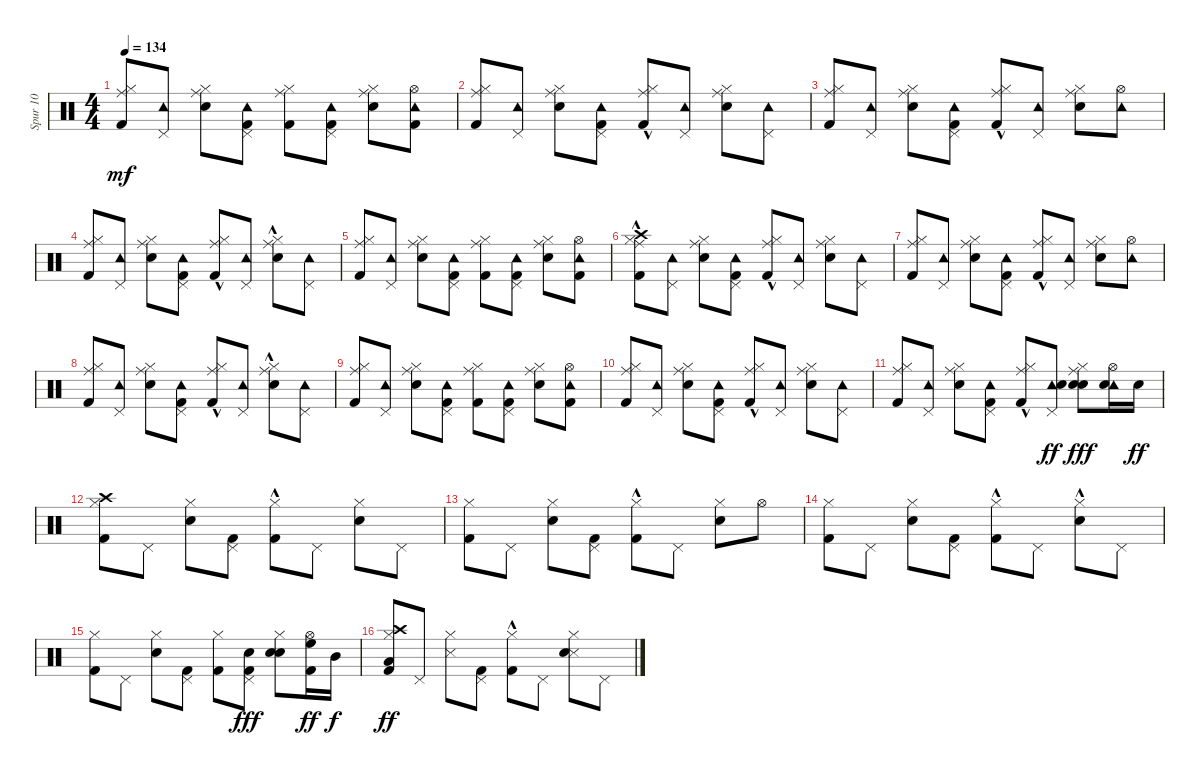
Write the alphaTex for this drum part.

\track ("Spur 10" "Spur 10") {instrument percussion}
\staff {score}
\articulation defaults
\ts (4 4)
\tempo 134
\clef neutral
\ks c
("Kick (hit) 2" "Hi-Hat (closed)" "Ride (middle)").8{dy mf} ("Pedal Hi-Hat (hit)" "Tambourine (hit)").8 ("Electric Snare (hit)" "Hi-Hat (closed)" "Ride (middle)").8 ("Kick (hit) 2" "Pedal Hi-Hat (hit)" "Tambourine (hit)").8 ("Kick (hit) 2" "Hi-Hat (closed)" "Ride (middle)").8 ("Kick (hit) 2" "Pedal Hi-Hat (hit)" "Tambourine (hit)").8 ("Electric Snare (hit)" "Hi-Hat (closed)" "Ride (middle)").8 ("Kick (hit) 2" "Hi-Hat (open)" "Tambourine (hit)").8 |
("Kick (hit) 2" "Hi-Hat (closed)" "Ride (middle)").8 ("Pedal Hi-Hat (hit)" "Tambourine (hit)").8 ("Electric Snare (hit)" "Hi-Hat (closed)" "Ride (middle)").8 ("Kick (hit) 2" "Pedal Hi-Hat (hit)" "Tambourine (hit)").8 ("Kick (hit) 2"{hac} "Hi-Hat (closed)" "Ride (middle)").8 ("Pedal Hi-Hat (hit)" "Tambourine (hit)").8 ("Electric Snare (hit)" "Hi-Hat (closed)" "Ride (middle)").8 ("Pedal Hi-Hat (hit)" "Tambourine (hit)").8 |
("Kick (hit) 2" "Hi-Hat (closed)" "Ride (middle)").8 ("Pedal Hi-Hat (hit)" "Tambourine (hit)").8 ("Electric Snare (hit)" "Hi-Hat (closed)" "Ride (middle)").8 ("Kick (hit) 2" "Pedal Hi-Hat (hit)" "Tambourine (hit)").8 ("Kick (hit) 2"{hac} "Hi-Hat (closed)" "Ride (middle)").8 ("Pedal Hi-Hat (hit)" "Tambourine (hit)").8 ("Electric Snare (hit)" "Hi-Hat (closed)" "Ride (middle)").8 ("Hi-Hat (open)" "Tambourine (hit)").8 |
("Kick (hit) 2" "Hi-Hat (closed)" "Ride (middle)").8 ("Pedal Hi-Hat (hit)" "Tambourine (hit)").8 ("Electric Snare (hit)" "Hi-Hat (closed)" "Ride (middle)").8 ("Kick (hit) 2" "Pedal Hi-Hat (hit)" "Tambourine (hit)").8 ("Kick (hit) 2"{hac} "Hi-Hat (closed)" "Ride (middle)").8 ("Pedal Hi-Hat (hit)" "Tambourine (hit)").8 ("Electric Snare (hit)" "Hi-Hat (closed)"{hac} "Ride (middle)").8 ("Pedal Hi-Hat (hit)" "Tambourine (hit)").8 |
("Kick (hit) 2" "Hi-Hat (closed)" "Ride (middle)").8 ("Pedal Hi-Hat (hit)" "Tambourine (hit)").8 ("Electric Snare (hit)" "Hi-Hat (closed)" "Ride (middle)").8 ("Kick (hit) 2" "Pedal Hi-Hat (hit)" "Tambourine (hit)").8 ("Kick (hit) 2" "Hi-Hat (closed)" "Ride (middle)").8 ("Kick (hit) 2" "Pedal Hi-Hat (hit)" "Tambourine (hit)").8 ("Electric Snare (hit)" "Hi-Hat (closed)" "Ride (middle)").8 ("Kick (hit) 2" "Hi-Hat (open)" "Tambourine (hit)").8 |
("Kick (hit) 2" "Hi-Hat (closed)" "Ride (middle)" "Crash high (hit)"{hac}).8 ("Pedal Hi-Hat (hit)" "Tambourine (hit)").8 ("Electric Snare (hit)" "Hi-Hat (closed)" "Ride (middle)").8 ("Kick (hit) 2" "Pedal Hi-Hat (hit)" "Tambourine (hit)").8 ("Kick (hit) 2"{hac} "Hi-Hat (closed)" "Ride (middle)").8 ("Pedal Hi-Hat (hit)" "Tambourine (hit)").8 ("Electric Snare (hit)" "Hi-Hat (closed)" "Ride (middle)").8 ("Pedal Hi-Hat (hit)" "Tambourine (hit)").8 |
("Kick (hit) 2" "Hi-Hat (closed)" "Ride (middle)").8 ("Pedal Hi-Hat (hit)" "Tambourine (hit)").8 ("Electric Snare (hit)" "Hi-Hat (closed)" "Ride (middle)").8 ("Kick (hit) 2" "Pedal Hi-Hat (hit)" "Tambourine (hit)").8 ("Kick (hit) 2"{hac} "Hi-Hat (closed)" "Ride (middle)").8 ("Pedal Hi-Hat (hit)" "Tambourine (hit)").8 ("Electric Snare (hit)" "Hi-Hat (closed)" "Ride (middle)").8 ("Hi-Hat (open)" "Tambourine (hit)").8 |
("Kick (hit) 2" "Hi-Hat (closed)" "Ride (middle)").8 ("Pedal Hi-Hat (hit)" "Tambourine (hit)").8 ("Electric Snare (hit)" "Hi-Hat (closed)" "Ride (middle)").8 ("Kick (hit) 2" "Pedal Hi-Hat (hit)" "Tambourine (hit)").8 ("Kick (hit) 2"{hac} "Hi-Hat (closed)" "Ride (middle)").8 ("Pedal Hi-Hat (hit)" "Tambourine (hit)").8 ("Electric Snare (hit)" "Hi-Hat (closed)"{hac} "Ride (middle)").8 ("Pedal Hi-Hat (hit)" "Tambourine (hit)").8 |
("Kick (hit) 2" "Hi-Hat (closed)" "Ride (middle)").8 ("Pedal Hi-Hat (hit)" "Tambourine (hit)").8 ("Electric Snare (hit)" "Hi-Hat (closed)" "Ride (middle)").8 ("Kick (hit) 2" "Pedal Hi-Hat (hit)" "Tambourine (hit)").8 ("Kick (hit) 2" "Hi-Hat (closed)" "Ride (middle)").8 ("Kick (hit) 2" "Pedal Hi-Hat (hit)" "Tambourine (hit)").8 ("Electric Snare (hit)" "Hi-Hat (closed)" "Ride (middle)").8 ("Kick (hit) 2" "Hi-Hat (open)" "Tambourine (hit)").8 |
("Kick (hit) 2" "Hi-Hat (closed)" "Ride (middle)").8 ("Pedal Hi-Hat (hit)" "Tambourine (hit)").8 ("Electric Snare (hit)" "Hi-Hat (closed)" "Ride (middle)").8 ("Kick (hit) 2" "Pedal Hi-Hat (hit)" "Tambourine (hit)").8 ("Kick (hit) 2"{hac} "Hi-Hat (closed)" "Ride (middle)").8 ("Pedal Hi-Hat (hit)" "Tambourine (hit)").8 ("Electric Snare (hit)" "Hi-Hat (closed)" "Ride (middle)").8 ("Pedal Hi-Hat (hit)" "Tambourine (hit)").8 |
("Kick (hit) 2" "Hi-Hat (closed)" "Ride (middle)").8 ("Pedal Hi-Hat (hit)" "Tambourine (hit)").8 ("Electric Snare (hit)" "Hi-Hat (closed)" "Ride (middle)").8 ("Kick (hit) 2" "Pedal Hi-Hat (hit)" "Tambourine (hit)").8 ("Kick (hit) 2"{hac} "Hi-Hat (closed)" "Ride (middle)").8 ("Pedal Hi-Hat (hit)" "Tambourine (hit)" "Electric Snare (hit)").8{dy ff} ("Electric Snare (hit)" "Hi-Hat (closed)" "Ride (middle)" "Electric Snare (hit)").8{dy fff} ("Hi-Hat (open)" "Tambourine (hit)" "Electric Snare (hit)").16 "Electric Snare (hit)".16{dy ff} |
("Kick (hit) 2" "Hi-Hat (closed)" "Crash high (hit)").8 "Pedal Hi-Hat (hit)".8 ("Electric Snare (hit)" "Hi-Hat (closed)").8 ("Kick (hit) 2" "Pedal Hi-Hat (hit)").8 ("Kick (hit) 2"{hac} "Hi-Hat (closed)").8 "Pedal Hi-Hat (hit)".8 ("Electric Snare (hit)" "Hi-Hat (closed)").8 "Pedal Hi-Hat (hit)".8 |
("Kick (hit) 2" "Hi-Hat (closed)").8 "Pedal Hi-Hat (hit)".8 ("Electric Snare (hit)" "Hi-Hat (closed)").8 ("Kick (hit) 2" "Pedal Hi-Hat (hit)").8 ("Kick (hit) 2"{hac} "Hi-Hat (closed)").8 "Pedal Hi-Hat (hit)".8 ("Electric Snare (hit)" "Hi-Hat (closed)").8 "Hi-Hat (open)".8 |
("Kick (hit) 2" "Hi-Hat (closed)").8 "Pedal Hi-Hat (hit)".8 ("Electric Snare (hit)" "Hi-Hat (closed)").8 ("Kick (hit) 2" "Pedal Hi-Hat (hit)").8 ("Kick (hit) 2"{hac} "Hi-Hat (closed)").8 "Pedal Hi-Hat (hit)".8 ("Electric Snare (hit)" "Hi-Hat (closed)"{hac}).8 "Pedal Hi-Hat (hit)".8 |
("Kick (hit) 2" "Hi-Hat (closed)").8 "Pedal Hi-Hat (hit)".8 ("Electric Snare (hit)" "Hi-Hat (closed)").8 ("Kick (hit) 2" "Pedal Hi-Hat (hit)").8 ("Kick (hit) 2" "Hi-Hat (closed)").8 ("Kick (hit) 2" "Pedal Hi-Hat (hit)" "Electric Snare (hit)").8{dy fff} ("Electric Snare (hit)" "Hi-Hat (closed)" "Electric Snare (hit)").8 ("Kick (hit) 2" "Hi-Hat (open)" "High Floor Tom (hit)").16{dy ff} "Mid Tom (hit)".16{dy f} |
("Kick (hit) 2" "Hi-Hat (closed)" "Low Tom (hit)" "Crash high (hit)").8{dy ff} "Pedal Hi-Hat (hit)".8 ("Snare (side stick) 3" "Hi-Hat (closed)").8 ("Kick (hit) 2" "Pedal Hi-Hat (hit)").8 ("Kick (hit) 2"{hac} "Hi-Hat (closed)").8 "Pedal Hi-Hat (hit)".8 ("Snare (side stick) 3" "Snare (hit) 2" "Hi-Hat (closed)").8 "Pedal Hi-Hat (hit)".8
